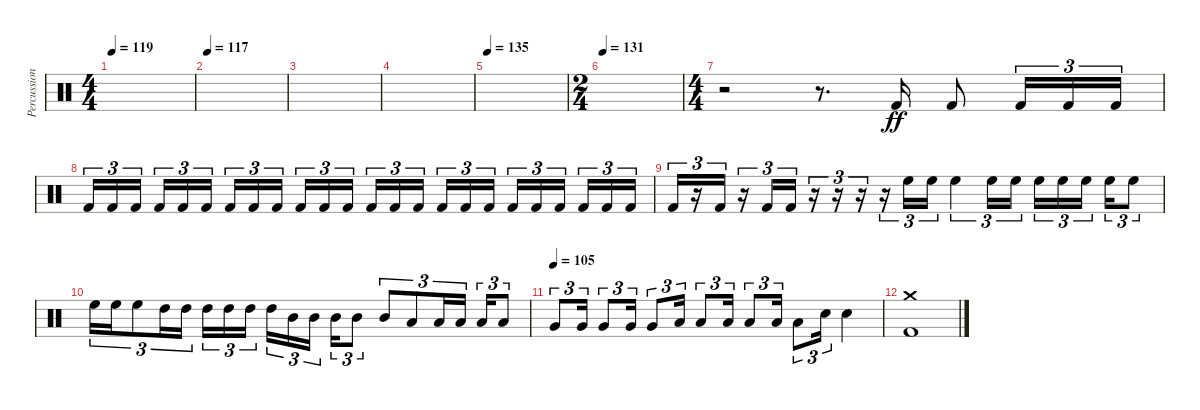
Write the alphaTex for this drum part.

\track ("Percussion" "Percussion") {instrument percussion}
\staff {score}
\articulation defaults
\ts (4 4)
\tempo 119
\clef neutral
\ks aminor
|
\tempo 117
|
|
|
\tempo 135
|
\ts (2 4)
\tempo 131
|
\ts (4 4)
r.2 r.8{d} "Kick (hit) 2".16{dy ff} "Kick (hit) 2".8 "Kick (hit) 2".16{tu (3 2)} "Kick (hit) 2".16{tu (3 2)} "Kick (hit) 2".16{tu (3 2)} |
"Kick (hit) 2".16{tu (3 2)} "Kick (hit) 2".16{tu (3 2)} "Kick (hit) 2".16{tu (3 2) beam splitsecondary} "Kick (hit) 2".16{tu (3 2)} "Kick (hit) 2".16{tu (3 2)} "Kick (hit) 2".16{tu (3 2)} "Kick (hit) 2".16{tu (3 2)} "Kick (hit) 2".16{tu (3 2)} "Kick (hit) 2".16{tu (3 2) beam splitsecondary} "Kick (hit) 2".16{tu (3 2)} "Kick (hit) 2".16{tu (3 2)} "Kick (hit) 2".16{tu (3 2)} "Kick (hit) 2".16{tu (3 2)} "Kick (hit) 2".16{tu (3 2)} "Kick (hit) 2".16{tu (3 2) beam splitsecondary} "Kick (hit) 2".16{tu (3 2)} "Kick (hit) 2".16{tu (3 2)} "Kick (hit) 2".16{tu (3 2)} "Kick (hit) 2".16{tu (3 2)} "Kick (hit) 2".16{tu (3 2)} "Kick (hit) 2".16{tu (3 2) beam splitsecondary} "Kick (hit) 2".16{tu (3 2)} "Kick (hit) 2".16{tu (3 2)} "Kick (hit) 2".16{tu (3 2)} |
"Kick (hit) 2".16{tu (3 2)} r.16{tu (3 2)} "Kick (hit) 2".16{tu (3 2)} r.16{tu (3 2)} "Kick (hit) 2".16{tu (3 2)} "Kick (hit) 2".16{tu (3 2)} r.16{tu (3 2)} r.16{tu (3 2)} r.16{tu (3 2)} r.16{tu (3 2)} "High Floor Tom (hit)".16{tu (3 2)} "High Floor Tom (hit)".16{tu (3 2)} "High Floor Tom (hit)".4{tu (3 2)} "High Floor Tom (hit)".16{tu (3 2)} "High Floor Tom (hit)".16{tu (3 2)} "High Floor Tom (hit)".16{tu (3 2)} "High Floor Tom (hit)".16{tu (3 2)} "High Floor Tom (hit)".16{tu (3 2) beam splitsecondary} "High Floor Tom (hit)".16{tu (3 2)} "High Floor Tom (hit)".8{tu (3 2)} |
"High Floor Tom (hit)".16{tu (3 2)} "High Floor Tom (hit)".16{tu (3 2)} "High Floor Tom (hit)".8{tu (3 2)} "High Tom (hit)".16{tu (3 2)} "High Tom (hit)".16{tu (3 2)} "High Tom (hit)".16{tu (3 2)} "High Tom (hit)".16{tu (3 2)} "High Tom (hit)".16{tu (3 2) beam splitsecondary} "High Tom (hit)".16{tu (3 2)} "Mid Tom (hit)".16{tu (3 2)} "Mid Tom (hit)".16{tu (3 2)} "Mid Tom (hit)".16{tu (3 2)} "Mid Tom (hit)".8{tu (3 2)} "Mid Tom (hit)".8{tu (3 2)} "Low Tom (hit)".8{tu (3 2)} "Low Tom (hit)".16{tu (3 2)} "Low Tom (hit)".16{tu (3 2) beam splitsecondary} "Low Tom (hit)".16{tu (3 2)} "Low Tom (hit)".8{tu (3 2)} |
\tempo (105)
"Very Low Tom (hit)".8{tu (3 2)} "Very Low Tom (hit)".16{tu (3 2)} "Very Low Tom (hit)".8{tu (3 2)} "Very Low Tom (hit)".16{tu (3 2)} "Very Low Tom (hit)".8{tu (3 2)} "Low Floor Tom (hit)".16{tu (3 2)} "Low Floor Tom (hit)".8{tu (3 2)} "Low Floor Tom (hit)".16{tu (3 2)} "Low Floor Tom (hit)".8{tu (3 2)} "Low Floor Tom (hit)".16{tu (3 2)} "Low Floor Tom (hit)".8{tu (3 2)} "Electric Snare (hit)".16{tu (3 2)} "Electric Snare (hit)".4 |
("Crash medium (hit)" "Kick (hit) 2").1
